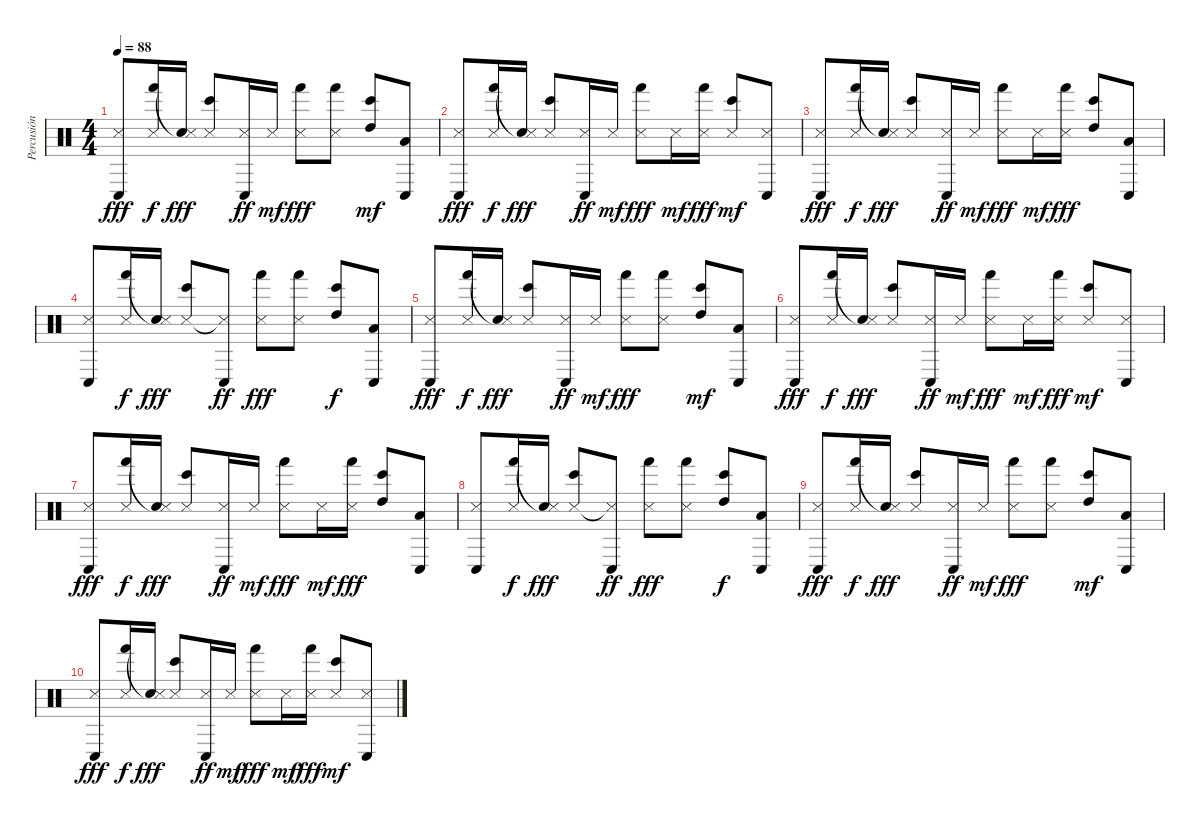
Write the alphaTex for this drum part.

\track ("Percusión" "Percusión") {instrument percussion}
\staff {score}
\articulation defaults
\ts (4 4)
\tempo 88
\clef neutral
\ks c
("Conga low (hit)" "Snare (side stick) 3").8{dy fff} ("Hand (hit)" "Snare (side stick) 3").16{dy f} ("Snare (hit)"{t} "Snare (side stick) 3").16{dy fff} ("Bongo High (hit)" "Snare (side stick) 3").8 ("Conga low (hit)" "Snare (side stick) 3").16{dy ff} "Snare (side stick) 3".16{dy mf} ("Hand (hit)" "Snare (side stick) 3").8{dy fff} ("Hand (hit)" "Snare (side stick) 3").8 ("Bongo High (hit)" "High Tom (hit)").8{dy mf} ("Conga low (hit)" "Low Tom (hit)").8 |
("Conga low (hit)" "Snare (side stick) 3").8{dy fff} ("Hand (hit)" "Snare (side stick) 3").16{dy f} ("Snare (hit)"{t} "Snare (side stick) 3").16{dy fff} ("Bongo High (hit)" "Snare (side stick) 3").8 ("Conga low (hit)" "Snare (side stick) 3").16{dy ff} "Snare (side stick) 3".16{dy mf} ("Hand (hit)" "Snare (side stick) 3").8{dy fff} "Snare (side stick) 3".16{dy mf} ("Hand (hit)" "Snare (side stick) 3").16{dy fff} ("Bongo High (hit)" "Snare (side stick) 3").8{dy mf} ("Conga low (hit)" "Snare (side stick) 3").8 |
("Conga low (hit)" "Snare (side stick) 3").8{dy fff} ("Hand (hit)" "Snare (side stick) 3").16{dy f} ("Snare (hit)"{t} "Snare (side stick) 3").16{dy fff} ("Bongo High (hit)" "Snare (side stick) 3").8 ("Conga low (hit)" "Snare (side stick) 3").16{dy ff} "Snare (side stick) 3".16{dy mf} ("Hand (hit)" "Snare (side stick) 3").8{dy fff} "Snare (side stick) 3".16{dy mf} ("Hand (hit)" "Snare (side stick) 3").16{dy fff} ("Bongo High (hit)" "High Tom (hit)").8 ("Conga low (hit)" "Low Tom (hit)").8 |
("Conga low (hit)" "Snare (side stick) 3").8 ("Hand (hit)" "Snare (side stick) 3").16{dy f} ("Snare (hit)"{t} "Snare (side stick) 3").16{dy fff} ("Bongo High (hit)" "Snare (side stick) 3").8 ("Conga low (hit)" "Snare (side stick) 3"{t}).8{dy ff} ("Hand (hit)" "Snare (side stick) 3").8{dy fff} ("Hand (hit)" "Snare (side stick) 3").8 ("Bongo High (hit)" "High Tom (hit)").8{dy f} ("Conga low (hit)" "Low Tom (hit)").8 |
("Conga low (hit)" "Snare (side stick) 3").8{dy fff} ("Hand (hit)" "Snare (side stick) 3").16{dy f} ("Snare (hit)"{t} "Snare (side stick) 3").16{dy fff} ("Bongo High (hit)" "Snare (side stick) 3").8 ("Conga low (hit)" "Snare (side stick) 3").16{dy ff} "Snare (side stick) 3".16{dy mf} ("Hand (hit)" "Snare (side stick) 3").8{dy fff} ("Hand (hit)" "Snare (side stick) 3").8 ("Bongo High (hit)" "High Tom (hit)").8{dy mf} ("Conga low (hit)" "Low Tom (hit)").8 |
("Conga low (hit)" "Snare (side stick) 3").8{dy fff} ("Hand (hit)" "Snare (side stick) 3").16{dy f} ("Snare (hit)"{t} "Snare (side stick) 3").16{dy fff} ("Bongo High (hit)" "Snare (side stick) 3").8 ("Conga low (hit)" "Snare (side stick) 3").16{dy ff} "Snare (side stick) 3".16{dy mf} ("Hand (hit)" "Snare (side stick) 3").8{dy fff} "Snare (side stick) 3".16{dy mf} ("Hand (hit)" "Snare (side stick) 3").16{dy fff} ("Bongo High (hit)" "Snare (side stick) 3").8{dy mf} ("Conga low (hit)" "Snare (side stick) 3").8 |
("Conga low (hit)" "Snare (side stick) 3").8{dy fff} ("Hand (hit)" "Snare (side stick) 3").16{dy f} ("Snare (hit)"{t} "Snare (side stick) 3").16{dy fff} ("Bongo High (hit)" "Snare (side stick) 3").8 ("Conga low (hit)" "Snare (side stick) 3").16{dy ff} "Snare (side stick) 3".16{dy mf} ("Hand (hit)" "Snare (side stick) 3").8{dy fff} "Snare (side stick) 3".16{dy mf} ("Hand (hit)" "Snare (side stick) 3").16{dy fff} ("Bongo High (hit)" "High Tom (hit)").8 ("Conga low (hit)" "Low Tom (hit)").8 |
("Conga low (hit)" "Snare (side stick) 3").8 ("Hand (hit)" "Snare (side stick) 3").16{dy f} ("Snare (hit)"{t} "Snare (side stick) 3").16{dy fff} ("Bongo High (hit)" "Snare (side stick) 3").8 ("Conga low (hit)" "Snare (side stick) 3"{t}).8{dy ff} ("Hand (hit)" "Snare (side stick) 3").8{dy fff} ("Hand (hit)" "Snare (side stick) 3").8 ("Bongo High (hit)" "High Tom (hit)").8{dy f} ("Conga low (hit)" "Low Tom (hit)").8 |
("Conga low (hit)" "Snare (side stick) 3").8{dy fff} ("Hand (hit)" "Snare (side stick) 3").16{dy f} ("Snare (hit)"{t} "Snare (side stick) 3").16{dy fff} ("Bongo High (hit)" "Snare (side stick) 3").8 ("Conga low (hit)" "Snare (side stick) 3").16{dy ff} "Snare (side stick) 3".16{dy mf} ("Hand (hit)" "Snare (side stick) 3").8{dy fff} ("Hand (hit)" "Snare (side stick) 3").8 ("Bongo High (hit)" "High Tom (hit)").8{dy mf} ("Conga low (hit)" "Low Tom (hit)").8 |
("Conga low (hit)" "Snare (side stick) 3").8{dy fff volume 0} ("Hand (hit)" "Snare (side stick) 3").16{dy f} ("Snare (hit)"{t} "Snare (side stick) 3").16{dy fff} ("Bongo High (hit)" "Snare (side stick) 3").8 ("Conga low (hit)" "Snare (side stick) 3").16{dy ff} "Snare (side stick) 3".16{dy mf} ("Hand (hit)" "Snare (side stick) 3").8{dy fff} "Snare (side stick) 3".16{dy mf} ("Hand (hit)" "Snare (side stick) 3").16{dy fff} ("Bongo High (hit)" "Snare (side stick) 3").8{dy mf} ("Conga low (hit)" "Snare (side stick) 3").8
